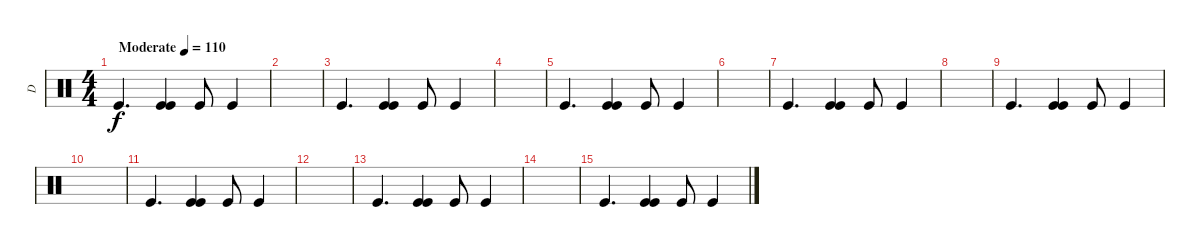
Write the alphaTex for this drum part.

\track ("D" "D") {instrument percussion}
\staff {score}
\articulation defaults
\ts (4 4)
\tempo (110 "Moderate")
\clef neutral
\ks c "Kick (hit)".4{d dy f}
("Kick (hit)" "Kick (hit)").4 "Kick (hit)".8 "Kick (hit)".4 |
|
"Kick (hit)".4{d} ("Kick (hit)" "Kick (hit)").4 "Kick (hit)".8 "Kick (hit)".4 |
|
"Kick (hit)".4{d} ("Kick (hit)" "Kick (hit)").4 "Kick (hit)".8 "Kick (hit)".4 |
|
"Kick (hit)".4{d} ("Kick (hit)" "Kick (hit)").4 "Kick (hit)".8 "Kick (hit)".4 |
|
"Kick (hit)".4{d} ("Kick (hit)" "Kick (hit)").4 "Kick (hit)".8 "Kick (hit)".4 |
|
"Kick (hit)".4{d} ("Kick (hit)" "Kick (hit)").4 "Kick (hit)".8 "Kick (hit)".4 |
|
"Kick (hit)".4{d} ("Kick (hit)" "Kick (hit)").4 "Kick (hit)".8 "Kick (hit)".4 |
|
"Kick (hit)".4{d} ("Kick (hit)" "Kick (hit)").4 "Kick (hit)".8 "Kick (hit)".4
